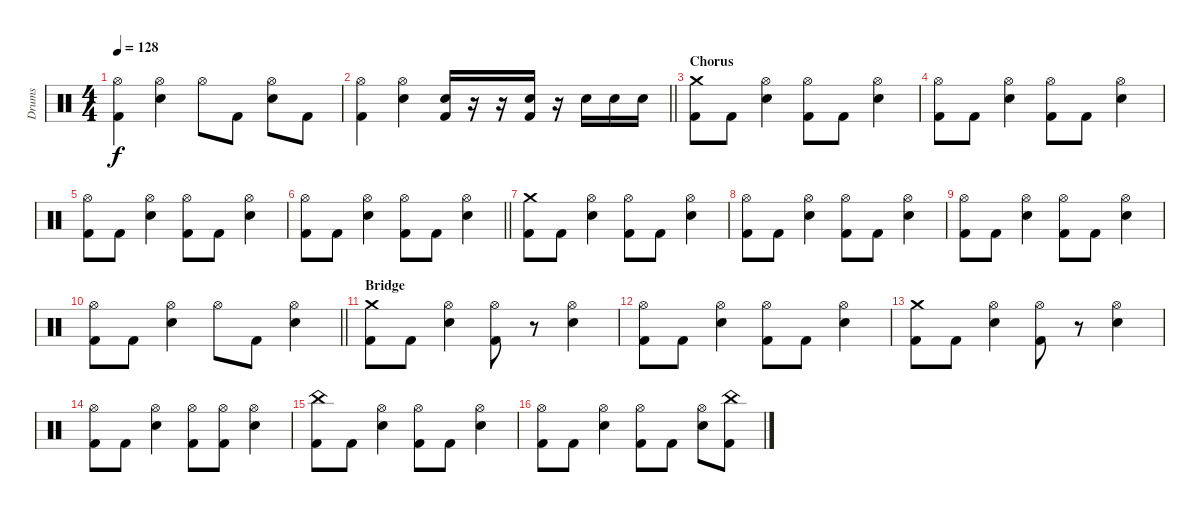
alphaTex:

\track ("Drums" "Drums") {instrument percussion}
\staff {score}
\articulation defaults
\ts (4 4)
\tempo 128
\clef neutral
\ks c
("Hi-Hat (open)" "Kick (hit) 2").4{dy f} ("Hi-Hat (open)" "Electric Snare (hit)").4 "Hi-Hat (open)".8 "Kick (hit) 2".8 ("Hi-Hat (open)" "Electric Snare (hit)").8 "Kick (hit) 2".8 |
\barLineRight lightlight
("Hi-Hat (open)" "Kick (hit) 2").4 ("Hi-Hat (open)" "Electric Snare (hit)").4 ("Electric Snare (hit)" "Kick (hit) 2").16 r.16 r.16 ("Electric Snare (hit)" "Kick (hit) 2").16 r.16 "Electric Snare (hit)".16 "Electric Snare (hit)".16 "Electric Snare (hit)".16 |
\section ("" "Chorus")
("Crash medium (hit)" "Kick (hit) 2").8 "Kick (hit) 2".8 ("Hi-Hat (open)" "Electric Snare (hit)").4 ("Hi-Hat (open)" "Kick (hit) 2").8 "Kick (hit) 2".8 ("Hi-Hat (open)" "Electric Snare (hit)").4 |
("Hi-Hat (open)" "Kick (hit) 2").8 "Kick (hit) 2".8 ("Hi-Hat (open)" "Electric Snare (hit)").4 ("Hi-Hat (open)" "Kick (hit) 2").8 "Kick (hit) 2".8 ("Hi-Hat (open)" "Electric Snare (hit)").4 |
("Hi-Hat (open)" "Kick (hit) 2").8 "Kick (hit) 2".8 ("Hi-Hat (open)" "Electric Snare (hit)").4 ("Hi-Hat (open)" "Kick (hit) 2").8 "Kick (hit) 2".8 ("Hi-Hat (open)" "Electric Snare (hit)").4 |
\barLineRight lightlight
("Hi-Hat (open)" "Kick (hit) 2").8 "Kick (hit) 2".8 ("Hi-Hat (open)" "Electric Snare (hit)").4 ("Hi-Hat (open)" "Kick (hit) 2").8 "Kick (hit) 2".8 ("Hi-Hat (open)" "Electric Snare (hit)").4 |
("Crash medium (hit)" "Kick (hit) 2").8 "Kick (hit) 2".8 ("Hi-Hat (open)" "Electric Snare (hit)").4 ("Hi-Hat (open)" "Kick (hit) 2").8 "Kick (hit) 2".8 ("Hi-Hat (open)" "Electric Snare (hit)").4 |
("Hi-Hat (open)" "Kick (hit) 2").8 "Kick (hit) 2".8 ("Hi-Hat (open)" "Electric Snare (hit)").4 ("Hi-Hat (open)" "Kick (hit) 2").8 "Kick (hit) 2".8 ("Hi-Hat (open)" "Electric Snare (hit)").4 |
("Hi-Hat (open)" "Kick (hit) 2").8 "Kick (hit) 2".8 ("Hi-Hat (open)" "Electric Snare (hit)").4 ("Hi-Hat (open)" "Kick (hit) 2").8 "Kick (hit) 2".8 ("Hi-Hat (open)" "Electric Snare (hit)").4 |
\barLineRight lightlight
("Hi-Hat (open)" "Kick (hit) 2").8 "Kick (hit) 2".8 ("Hi-Hat (open)" "Electric Snare (hit)").4 "Hi-Hat (open)".8 "Kick (hit) 2".8 ("Hi-Hat (open)" "Electric Snare (hit)").4 |
\section ("" "Bridge")
("Crash medium (hit)" "Kick (hit) 2").8 "Kick (hit) 2".8 ("Hi-Hat (open)" "Electric Snare (hit)").4 ("Hi-Hat (open)" "Kick (hit) 2").8 r.8 ("Hi-Hat (open)" "Electric Snare (hit)").4 |
("Hi-Hat (open)" "Kick (hit) 2").8 "Kick (hit) 2".8 ("Hi-Hat (open)" "Electric Snare (hit)").4 ("Hi-Hat (open)" "Kick (hit) 2").8 "Kick (hit) 2".8 ("Hi-Hat (open)" "Electric Snare (hit)").4 |
("Crash medium (hit)" "Kick (hit) 2").8 "Kick (hit) 2".8 ("Hi-Hat (open)" "Electric Snare (hit)").4 ("Hi-Hat (open)" "Kick (hit) 2").8 r.8 ("Hi-Hat (open)" "Electric Snare (hit)").4 |
("Hi-Hat (open)" "Kick (hit) 2").8 "Kick (hit) 2".8 ("Hi-Hat (open)" "Electric Snare (hit)").4 ("Hi-Hat (open)" "Kick (hit) 2").8 ("Hi-Hat (open)" "Kick (hit) 2").8 ("Hi-Hat (open)" "Electric Snare (hit)").4 |
("China (hit)" "Kick (hit) 2").8 "Kick (hit) 2".8 ("Hi-Hat (open)" "Electric Snare (hit)").4 ("Hi-Hat (open)" "Kick (hit) 2").8 "Kick (hit) 2".8 ("Hi-Hat (open)" "Electric Snare (hit)").4 |
("Hi-Hat (open)" "Kick (hit) 2").8 "Kick (hit) 2".8 ("Hi-Hat (open)" "Electric Snare (hit)").4 ("Hi-Hat (open)" "Kick (hit) 2").8 "Kick (hit) 2".8 ("Hi-Hat (open)" "Electric Snare (hit)").8 ("China (hit)" "Kick (hit) 2").8
